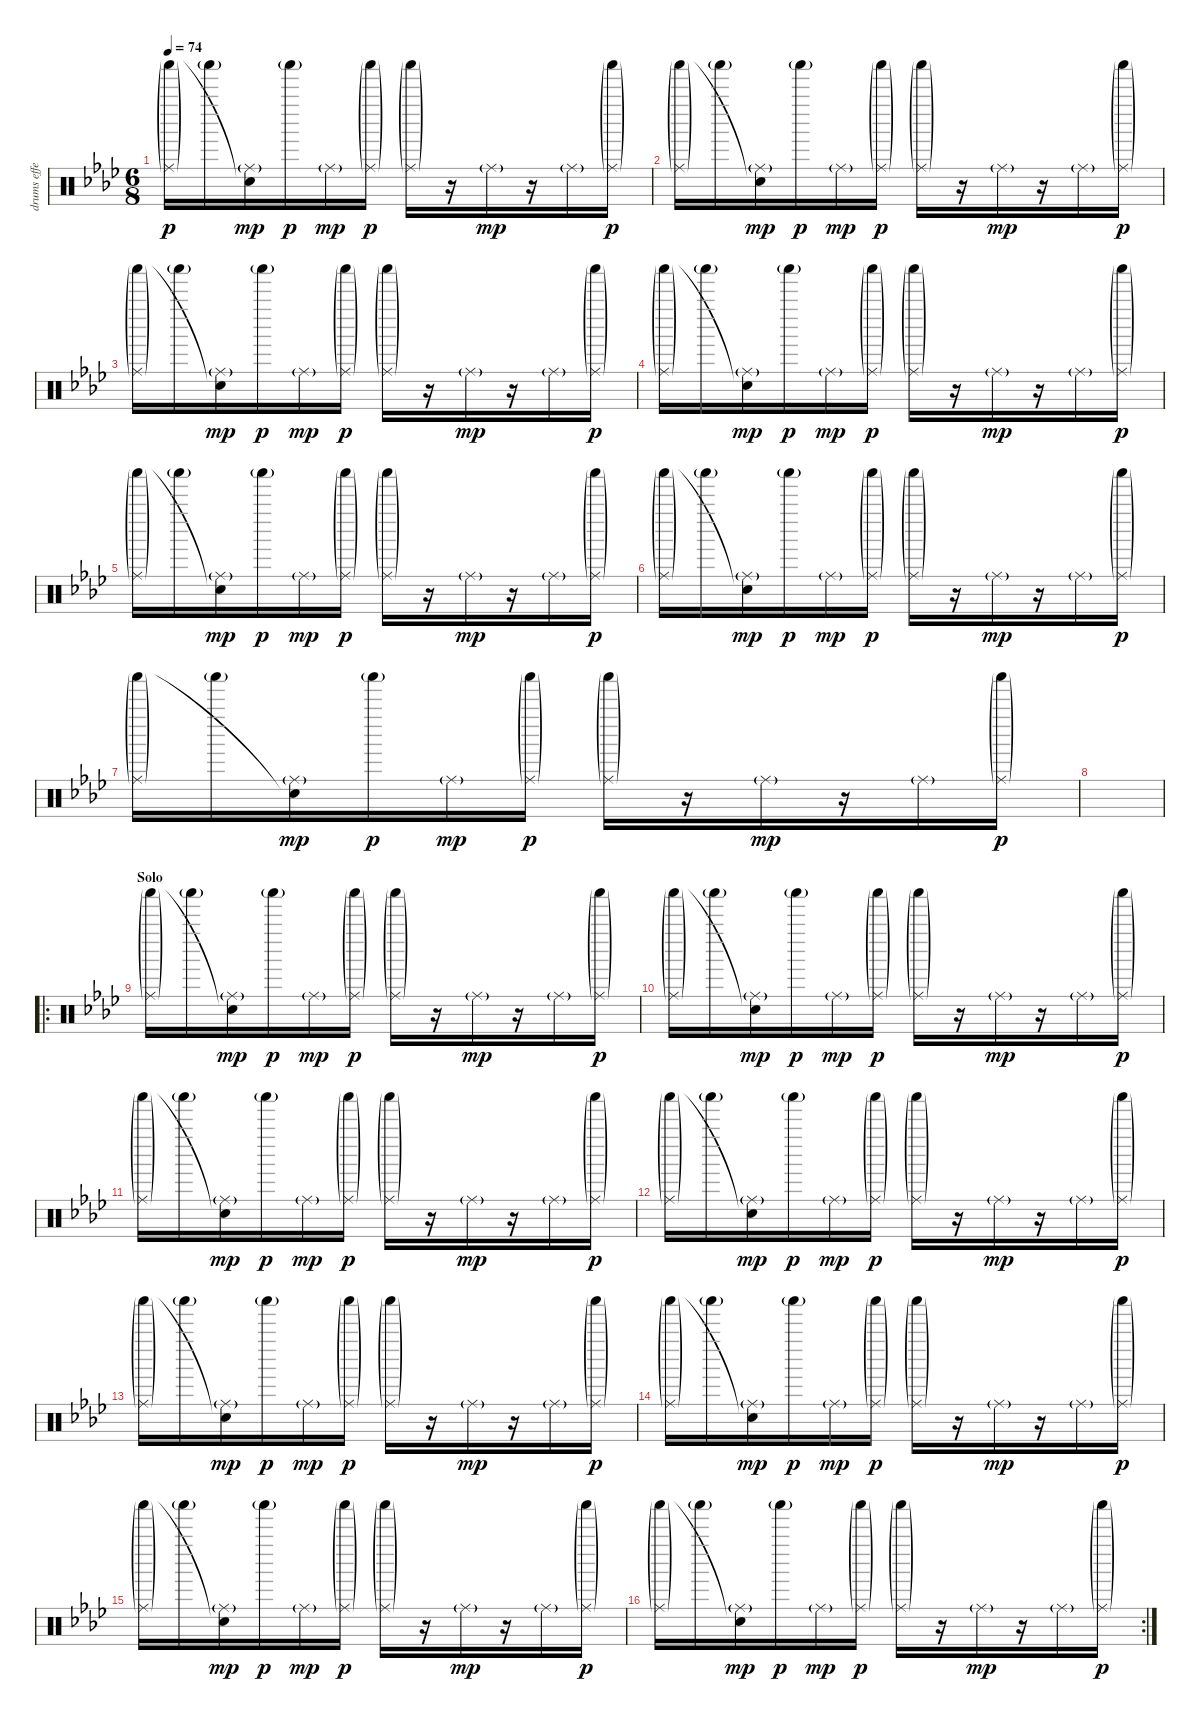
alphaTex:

\track ("drums effect" "drums effe") {instrument percussion}
\staff {score}
\articulation defaults
\ts (6 8)
\tempo 74
\clef neutral
\ks ab
("Ride (middle)"{g} "Shaker (hit)"{g}).16{dy p} "Shaker (hit)"{g}.16 ("Ride (middle)"{g} "Snare (hit)"{t}).16{dy mp} "Shaker (hit)"{g}.16{dy p} "Ride (middle)"{g}.16{dy mp} ("Ride (middle)"{g} "Shaker (hit)"{g}).16{dy p} ("Ride (middle)"{g} "Shaker (hit)"{g}).16 r.16 "Ride (middle)"{g}.16{dy mp} r.16 "Ride (middle)"{g}.16 ("Ride (middle)"{g} "Shaker (hit)"{g}).16{dy p} |
("Ride (middle)"{g} "Shaker (hit)"{g}).16 "Shaker (hit)"{g}.16 ("Ride (middle)"{g} "Snare (hit)"{t}).16{dy mp} "Shaker (hit)"{g}.16{dy p} "Ride (middle)"{g}.16{dy mp} ("Ride (middle)"{g} "Shaker (hit)"{g}).16{dy p} ("Ride (middle)"{g} "Shaker (hit)"{g}).16 r.16 "Ride (middle)"{g}.16{dy mp} r.16 "Ride (middle)"{g}.16 ("Ride (middle)"{g} "Shaker (hit)"{g}).16{dy p} |
("Ride (middle)"{g} "Shaker (hit)"{g}).16 "Shaker (hit)"{g}.16 ("Ride (middle)"{g} "Snare (hit)"{t}).16{dy mp} "Shaker (hit)"{g}.16{dy p} "Ride (middle)"{g}.16{dy mp} ("Ride (middle)"{g} "Shaker (hit)"{g}).16{dy p} ("Ride (middle)"{g} "Shaker (hit)"{g}).16 r.16 "Ride (middle)"{g}.16{dy mp} r.16 "Ride (middle)"{g}.16 ("Ride (middle)"{g} "Shaker (hit)"{g}).16{dy p} |
("Ride (middle)"{g} "Shaker (hit)"{g}).16 "Shaker (hit)"{g}.16 ("Ride (middle)"{g} "Snare (hit)"{t}).16{dy mp} "Shaker (hit)"{g}.16{dy p} "Ride (middle)"{g}.16{dy mp} ("Ride (middle)"{g} "Shaker (hit)"{g}).16{dy p} ("Ride (middle)"{g} "Shaker (hit)"{g}).16 r.16 "Ride (middle)"{g}.16{dy mp} r.16 "Ride (middle)"{g}.16 ("Ride (middle)"{g} "Shaker (hit)"{g}).16{dy p} |
("Ride (middle)"{g} "Shaker (hit)"{g}).16 "Shaker (hit)"{g}.16 ("Ride (middle)"{g} "Snare (hit)"{t}).16{dy mp} "Shaker (hit)"{g}.16{dy p} "Ride (middle)"{g}.16{dy mp} ("Ride (middle)"{g} "Shaker (hit)"{g}).16{dy p} ("Ride (middle)"{g} "Shaker (hit)"{g}).16 r.16 "Ride (middle)"{g}.16{dy mp} r.16 "Ride (middle)"{g}.16 ("Ride (middle)"{g} "Shaker (hit)"{g}).16{dy p} |
("Ride (middle)"{g} "Shaker (hit)"{g}).16 "Shaker (hit)"{g}.16 ("Ride (middle)"{g} "Snare (hit)"{t}).16{dy mp} "Shaker (hit)"{g}.16{dy p} "Ride (middle)"{g}.16{dy mp} ("Ride (middle)"{g} "Shaker (hit)"{g}).16{dy p} ("Ride (middle)"{g} "Shaker (hit)"{g}).16 r.16 "Ride (middle)"{g}.16{dy mp} r.16 "Ride (middle)"{g}.16 ("Ride (middle)"{g} "Shaker (hit)"{g}).16{dy p} |
("Ride (middle)"{g} "Shaker (hit)"{g}).16 "Shaker (hit)"{g}.16 ("Ride (middle)"{g} "Snare (hit)"{t}).16{dy mp} "Shaker (hit)"{g}.16{dy p} "Ride (middle)"{g}.16{dy mp} ("Ride (middle)"{g} "Shaker (hit)"{g}).16{dy p} ("Ride (middle)"{g} "Shaker (hit)"{g}).16 r.16 "Ride (middle)"{g}.16{dy mp} r.16 "Ride (middle)"{g}.16 ("Ride (middle)"{g} "Shaker (hit)"{g}).16{dy p} |
|
\ro
\section ("" "Solo")
("Ride (middle)"{g} "Shaker (hit)"{g}).16{volume 16} "Shaker (hit)"{g}.16 ("Ride (middle)"{g} "Snare (hit)"{t}).16{dy mp} "Shaker (hit)"{g}.16{dy p} "Ride (middle)"{g}.16{dy mp} ("Ride (middle)"{g} "Shaker (hit)"{g}).16{dy p} ("Ride (middle)"{g} "Shaker (hit)"{g}).16 r.16 "Ride (middle)"{g}.16{dy mp} r.16 "Ride (middle)"{g}.16 ("Ride (middle)"{g} "Shaker (hit)"{g}).16{dy p} |
("Ride (middle)"{g} "Shaker (hit)"{g}).16 "Shaker (hit)"{g}.16 ("Ride (middle)"{g} "Snare (hit)"{t}).16{dy mp} "Shaker (hit)"{g}.16{dy p} "Ride (middle)"{g}.16{dy mp} ("Ride (middle)"{g} "Shaker (hit)"{g}).16{dy p} ("Ride (middle)"{g} "Shaker (hit)"{g}).16 r.16 "Ride (middle)"{g}.16{dy mp} r.16 "Ride (middle)"{g}.16 ("Ride (middle)"{g} "Shaker (hit)"{g}).16{dy p} |
("Ride (middle)"{g} "Shaker (hit)"{g}).16 "Shaker (hit)"{g}.16 ("Ride (middle)"{g} "Snare (hit)"{t}).16{dy mp} "Shaker (hit)"{g}.16{dy p} "Ride (middle)"{g}.16{dy mp} ("Ride (middle)"{g} "Shaker (hit)"{g}).16{dy p} ("Ride (middle)"{g} "Shaker (hit)"{g}).16 r.16 "Ride (middle)"{g}.16{dy mp} r.16 "Ride (middle)"{g}.16 ("Ride (middle)"{g} "Shaker (hit)"{g}).16{dy p} |
("Ride (middle)"{g} "Shaker (hit)"{g}).16 "Shaker (hit)"{g}.16 ("Ride (middle)"{g} "Snare (hit)"{t}).16{dy mp} "Shaker (hit)"{g}.16{dy p} "Ride (middle)"{g}.16{dy mp} ("Ride (middle)"{g} "Shaker (hit)"{g}).16{dy p} ("Ride (middle)"{g} "Shaker (hit)"{g}).16 r.16 "Ride (middle)"{g}.16{dy mp} r.16 "Ride (middle)"{g}.16 ("Ride (middle)"{g} "Shaker (hit)"{g}).16{dy p} |
("Ride (middle)"{g} "Shaker (hit)"{g}).16 "Shaker (hit)"{g}.16 ("Ride (middle)"{g} "Snare (hit)"{t}).16{dy mp} "Shaker (hit)"{g}.16{dy p} "Ride (middle)"{g}.16{dy mp} ("Ride (middle)"{g} "Shaker (hit)"{g}).16{dy p} ("Ride (middle)"{g} "Shaker (hit)"{g}).16 r.16 "Ride (middle)"{g}.16{dy mp} r.16 "Ride (middle)"{g}.16 ("Ride (middle)"{g} "Shaker (hit)"{g}).16{dy p} |
("Ride (middle)"{g} "Shaker (hit)"{g}).16 "Shaker (hit)"{g}.16 ("Ride (middle)"{g} "Snare (hit)"{t}).16{dy mp} "Shaker (hit)"{g}.16{dy p} "Ride (middle)"{g}.16{dy mp} ("Ride (middle)"{g} "Shaker (hit)"{g}).16{dy p} ("Ride (middle)"{g} "Shaker (hit)"{g}).16 r.16 "Ride (middle)"{g}.16{dy mp} r.16 "Ride (middle)"{g}.16 ("Ride (middle)"{g} "Shaker (hit)"{g}).16{dy p} |
("Ride (middle)"{g} "Shaker (hit)"{g}).16 "Shaker (hit)"{g}.16 ("Ride (middle)"{g} "Snare (hit)"{t}).16{dy mp} "Shaker (hit)"{g}.16{dy p} "Ride (middle)"{g}.16{dy mp} ("Ride (middle)"{g} "Shaker (hit)"{g}).16{dy p} ("Ride (middle)"{g} "Shaker (hit)"{g}).16 r.16 "Ride (middle)"{g}.16{dy mp} r.16 "Ride (middle)"{g}.16 ("Ride (middle)"{g} "Shaker (hit)"{g}).16{dy p} |
\rc 2
("Ride (middle)"{g} "Shaker (hit)"{g}).16 "Shaker (hit)"{g}.16 ("Ride (middle)"{g} "Snare (hit)"{t}).16{dy mp} "Shaker (hit)"{g}.16{dy p} "Ride (middle)"{g}.16{dy mp} ("Ride (middle)"{g} "Shaker (hit)"{g}).16{dy p} ("Ride (middle)"{g} "Shaker (hit)"{g}).16 r.16 "Ride (middle)"{g}.16{dy mp} r.16 "Ride (middle)"{g}.16 ("Ride (middle)"{g} "Shaker (hit)"{g}).16{dy p}
